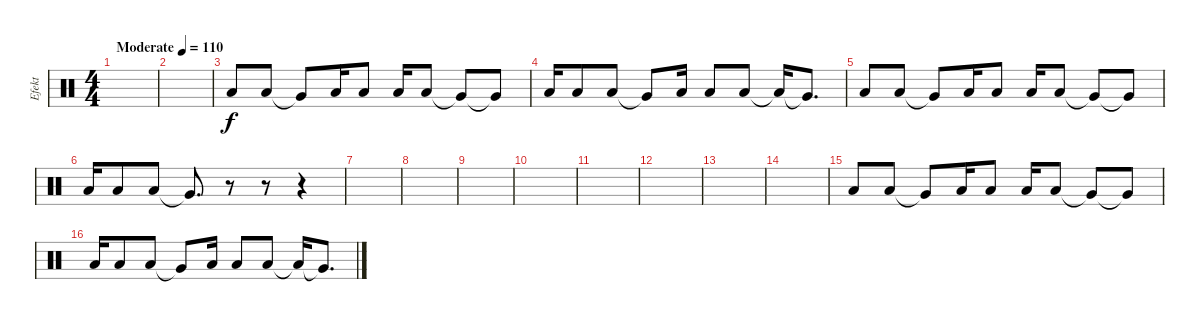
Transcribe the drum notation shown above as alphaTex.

\track ("Efekt" "Efekt") {instrument percussion}
\staff {score}
\articulation defaults
\ts (4 4)
\tempo (110 "Moderate")
\clef neutral
\ks c
|
|
"Low Floor Tom (hit)".8{volume 8} "Low Floor Tom (hit)".8 "Very Low Tom (hit)"{t}.8 "Low Floor Tom (hit)".16 "Low Floor Tom (hit)".8 "Low Floor Tom (hit)".16 "Low Floor Tom (hit)".8 "Very Low Tom (hit)"{t}.8 "Very Low Tom (hit)"{t}.8 |
"Low Floor Tom (hit)".16 "Low Floor Tom (hit)".8 "Low Floor Tom (hit)".8 "Very Low Tom (hit)"{t}.8 "Low Floor Tom (hit)".16 "Low Floor Tom (hit)".8 "Low Floor Tom (hit)".8 "Low Floor Tom (hit)"{t}.16 "Very Low Tom (hit)"{t}.8{d} |
"Low Floor Tom (hit)".8 "Low Floor Tom (hit)".8 "Very Low Tom (hit)"{t}.8 "Low Floor Tom (hit)".16 "Low Floor Tom (hit)".8 "Low Floor Tom (hit)".16 "Low Floor Tom (hit)".8 "Very Low Tom (hit)"{t}.8 "Very Low Tom (hit)"{t}.8 |
"Low Floor Tom (hit)".16 "Low Floor Tom (hit)".8 "Low Floor Tom (hit)".8 "Very Low Tom (hit)"{t}.8{d} r.8 r.8 r.4 |
|
|
|
|
|
|
|
|
"Low Floor Tom (hit)".8{volume 8} "Low Floor Tom (hit)".8 "Very Low Tom (hit)"{t}.8 "Low Floor Tom (hit)".16 "Low Floor Tom (hit)".8 "Low Floor Tom (hit)".16 "Low Floor Tom (hit)".8 "Very Low Tom (hit)"{t}.8 "Very Low Tom (hit)"{t}.8 |
"Low Floor Tom (hit)".16 "Low Floor Tom (hit)".8 "Low Floor Tom (hit)".8 "Very Low Tom (hit)"{t}.8 "Low Floor Tom (hit)".16 "Low Floor Tom (hit)".8 "Low Floor Tom (hit)".8 "Low Floor Tom (hit)"{t}.16 "Very Low Tom (hit)"{t}.8{d}
